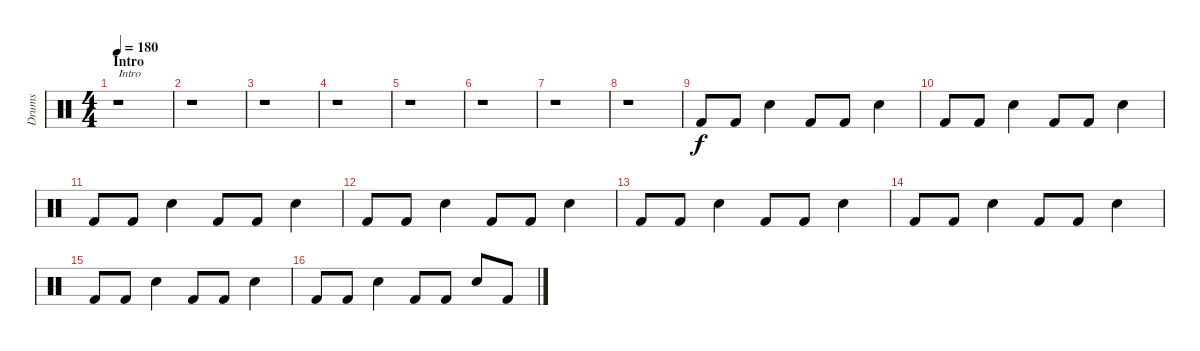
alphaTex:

\track ("Drums" "Drums") {instrument percussion}
\staff {score}
\articulation defaults
\ts (4 4)
\section ("" "Intro")
\tempo 180
\clef neutral
\ks c
r.1{txt "Intro" dy f} |
r.1 |
r.1 |
r.1 |
r.1 |
r.1 |
r.1 |
r.1 |
"Kick (hit) 2".8 "Kick (hit) 2".8 "Snare (hit) 2".4 "Kick (hit) 2".8 "Kick (hit) 2".8 "Snare (hit) 2".4 |
"Kick (hit) 2".8 "Kick (hit) 2".8 "Snare (hit) 2".4 "Kick (hit) 2".8 "Kick (hit) 2".8 "Snare (hit) 2".4 |
"Kick (hit) 2".8 "Kick (hit) 2".8 "Snare (hit) 2".4 "Kick (hit) 2".8 "Kick (hit) 2".8 "Snare (hit) 2".4 |
"Kick (hit) 2".8 "Kick (hit) 2".8 "Snare (hit) 2".4 "Kick (hit) 2".8 "Kick (hit) 2".8 "Snare (hit) 2".4 |
"Kick (hit) 2".8 "Kick (hit) 2".8 "Snare (hit) 2".4 "Kick (hit) 2".8 "Kick (hit) 2".8 "Snare (hit) 2".4 |
"Kick (hit) 2".8 "Kick (hit) 2".8 "Snare (hit) 2".4 "Kick (hit) 2".8 "Kick (hit) 2".8 "Snare (hit) 2".4 |
"Kick (hit) 2".8 "Kick (hit) 2".8 "Snare (hit) 2".4 "Kick (hit) 2".8 "Kick (hit) 2".8 "Snare (hit) 2".4 |
"Kick (hit) 2".8 "Kick (hit) 2".8 "Snare (hit) 2".4 "Kick (hit) 2".8 "Kick (hit) 2".8 "Snare (hit) 2".8 "Kick (hit) 2".8
